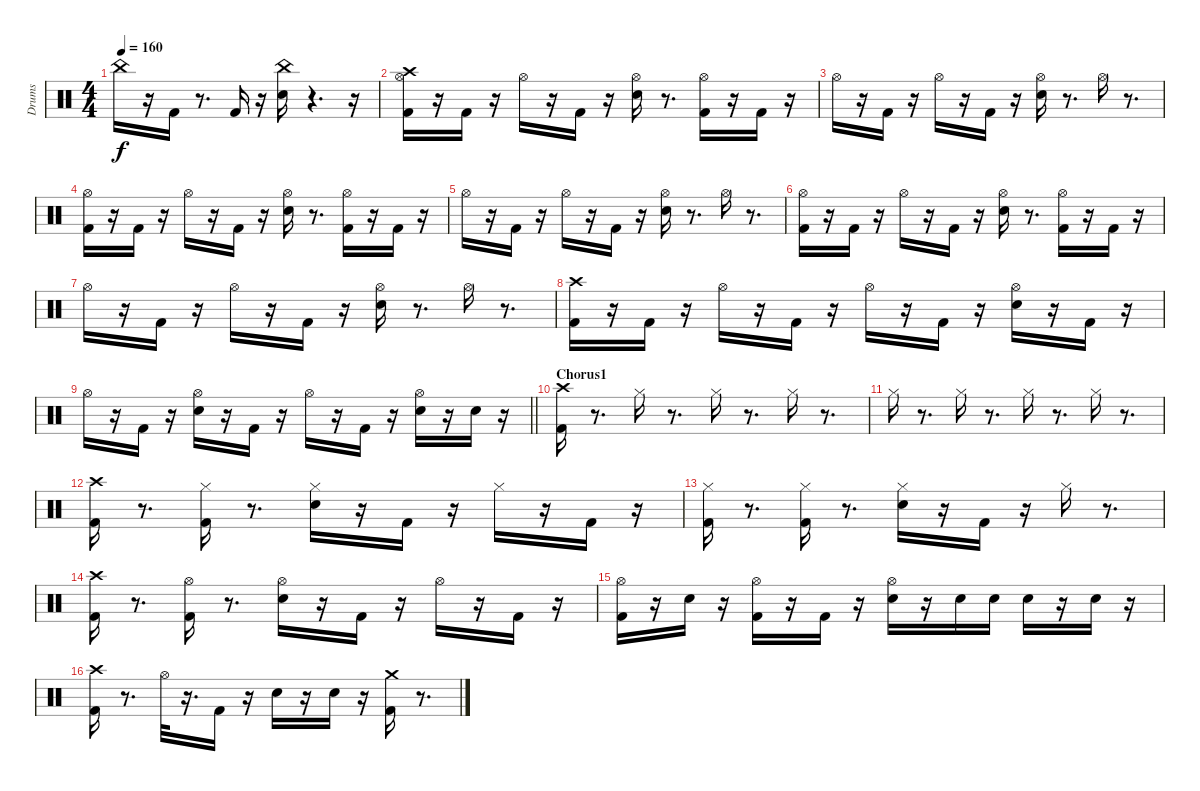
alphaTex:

\track ("Drums" "Drums") {instrument percussion}
\staff {score}
\articulation defaults
\ts (4 4)
\tempo 160
\clef neutral
\ks c "China (hit)".16{dy f}
r.16 "Kick (hit) 2".16 r.8{d} "Kick (hit) 2".16 r.16 ("Snare (hit) 2" "China (hit)").16 r.4{d} r.16 |
("Kick (hit) 2" "Hi-Hat (open)" "Crash high (hit)").16 r.16 "Kick (hit) 2".16 r.16 "Hi-Hat (open)".16 r.16 "Kick (hit) 2".16 r.16 ("Snare (hit) 2" "Hi-Hat (open)").16 r.8{d} ("Kick (hit) 2" "Hi-Hat (open)").16 r.16 "Kick (hit) 2".16 r.16 |
"Hi-Hat (open)".16 r.16 "Kick (hit) 2".16 r.16 "Hi-Hat (open)".16 r.16 "Kick (hit) 2".16 r.16 ("Snare (hit) 2" "Hi-Hat (open)").16 r.8{d} "Hi-Hat (open)".16 r.8{d} |
("Kick (hit) 2" "Hi-Hat (open)").16 r.16 "Kick (hit) 2".16 r.16 "Hi-Hat (open)".16 r.16 "Kick (hit) 2".16 r.16 ("Snare (hit) 2" "Hi-Hat (open)").16 r.8{d} ("Kick (hit) 2" "Hi-Hat (open)").16 r.16 "Kick (hit) 2".16 r.16 |
"Hi-Hat (open)".16 r.16 "Kick (hit) 2".16 r.16 "Hi-Hat (open)".16 r.16 "Kick (hit) 2".16 r.16 ("Snare (hit) 2" "Hi-Hat (open)").16 r.8{d} "Hi-Hat (open)".16 r.8{d} |
("Kick (hit) 2" "Hi-Hat (open)").16 r.16 "Kick (hit) 2".16 r.16 "Hi-Hat (open)".16 r.16 "Kick (hit) 2".16 r.16 ("Snare (hit) 2" "Hi-Hat (open)").16 r.8{d} ("Kick (hit) 2" "Hi-Hat (open)").16 r.16 "Kick (hit) 2".16 r.16 |
"Hi-Hat (open)".16 r.16 "Kick (hit) 2".16 r.16 "Hi-Hat (open)".16 r.16 "Kick (hit) 2".16 r.16 ("Snare (hit) 2" "Hi-Hat (open)").16 r.8{d} "Hi-Hat (open)".16 r.8{d} |
("Kick (hit) 2" "Crash high (hit)").16 r.16 "Kick (hit) 2".16 r.16 "Hi-Hat (open)".16 r.16 "Kick (hit) 2".16 r.16 "Hi-Hat (open)".16 r.16 "Kick (hit) 2".16 r.16 ("Snare (hit) 2" "Hi-Hat (open)").16 r.16 "Kick (hit) 2".16 r.16 |
\barLineRight lightlight "Hi-Hat (open)".16
r.16 "Kick (hit) 2".16 r.16 ("Snare (hit) 2" "Hi-Hat (open)").16 r.16 "Kick (hit) 2".16 r.16 "Hi-Hat (open)".16 r.16 "Kick (hit) 2".16 r.16 ("Snare (hit) 2" "Hi-Hat (open)").16 r.16 "Snare (hit) 2".16 r.16 |
\section ("" "Chorus1")
("Kick (hit) 2" "Crash high (hit)").16 r.8{d} "Hi-Hat (closed)".16 r.8{d} "Hi-Hat (closed)".16 r.8{d} "Hi-Hat (closed)".16 r.8{d} |
"Hi-Hat (closed)".16 r.8{d} "Hi-Hat (closed)".16 r.8{d} "Hi-Hat (closed)".16 r.8{d} "Hi-Hat (closed)".16 r.8{d} |
("Kick (hit) 2" "Crash high (hit)").16 r.8{d} ("Kick (hit) 2" "Hi-Hat (closed)").16 r.8{d} ("Snare (hit) 2" "Hi-Hat (closed)").16 r.16 "Kick (hit) 2".16 r.16 "Hi-Hat (closed)".16 r.16 "Kick (hit) 2".16 r.16 |
("Kick (hit) 2" "Hi-Hat (closed)").16 r.8{d} ("Kick (hit) 2" "Hi-Hat (closed)").16 r.8{d} ("Snare (hit) 2" "Hi-Hat (closed)").16 r.16 "Kick (hit) 2".16 r.16 "Hi-Hat (closed)".16 r.8{d} |
("Kick (hit) 2" "Crash high (hit)").16 r.8{d} ("Kick (hit) 2" "Hi-Hat (open)").16 r.8{d} ("Snare (hit) 2" "Hi-Hat (open)").16 r.16 "Kick (hit) 2".16 r.16 "Hi-Hat (open)".16 r.16 "Kick (hit) 2".16 r.16 |
("Kick (hit) 2" "Hi-Hat (open)").16 r.16 "Snare (hit) 2".16 r.16 ("Kick (hit) 2" "Hi-Hat (open)").16 r.16 "Kick (hit) 2".16 r.16 ("Snare (hit) 2" "Hi-Hat (open)").16 r.16 "Snare (hit) 2".16 "Snare (hit) 2".16 "Snare (hit) 2".16 r.16 "Snare (hit) 2".16 r.16 |
("Kick (hit) 2" "Crash high (hit)").16 r.8{d} "Hi-Hat (open)".32 r.16{d} "Kick (hit) 2".16 r.16 "Snare (hit) 2".16 r.16 "Snare (hit) 2".16 r.16 ("Kick (hit) 2" "Crash medium (hit)").16 r.8{d}
